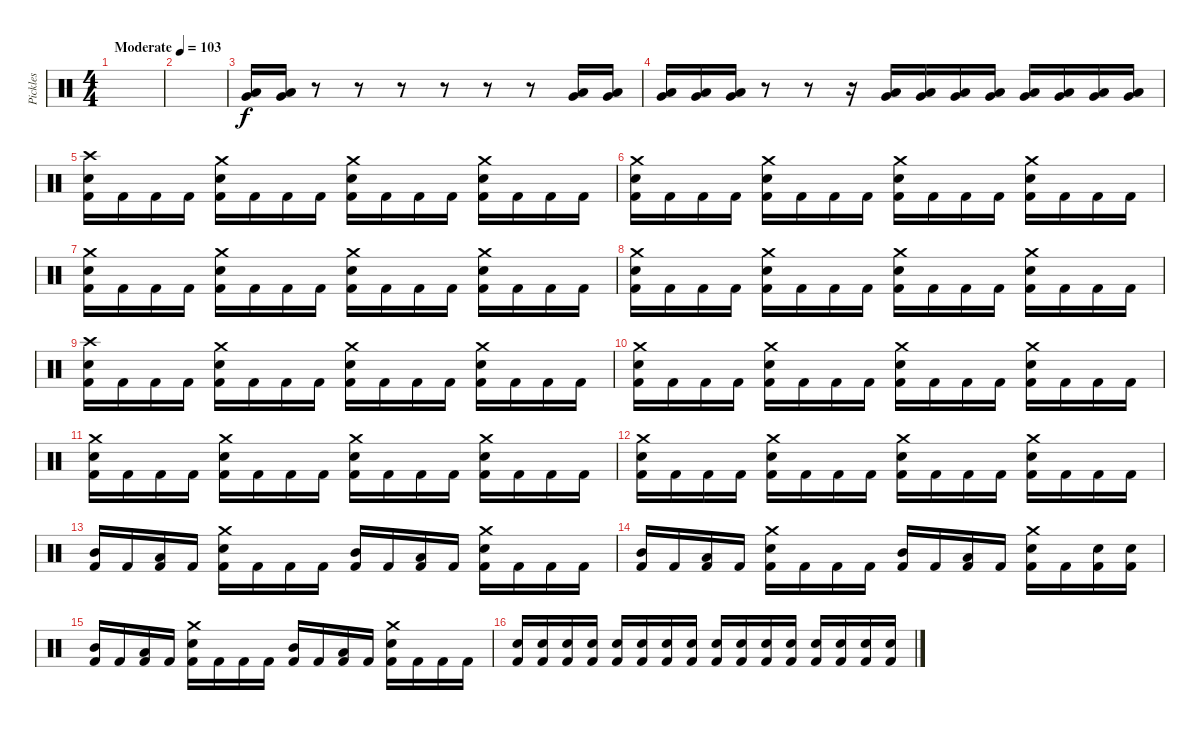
\track ("Pickles" "Pickles") {instrument percussion}
\staff {score}
\articulation defaults
\ts (4 4)
\tempo (103 "Moderate")
\clef neutral
\ks c
|
|
("Very Low Tom (hit)" "Low Tom (hit)").16 ("Very Low Tom (hit)" "Low Tom (hit)").16 r.8 r.8 r.8 r.8 r.8 r.8 ("Very Low Tom (hit)" "Low Tom (hit)").16 ("Very Low Tom (hit)" "Low Tom (hit)").16 |
("Very Low Tom (hit)" "Low Tom (hit)").16 ("Very Low Tom (hit)" "Low Tom (hit)").16 ("Very Low Tom (hit)" "Low Tom (hit)").16 r.8 r.8 r.16 ("Very Low Tom (hit)" "Low Tom (hit)").16 ("Very Low Tom (hit)" "Low Tom (hit)").16 ("Very Low Tom (hit)" "Low Tom (hit)").16 ("Very Low Tom (hit)" "Low Tom (hit)").16 ("Very Low Tom (hit)" "Low Tom (hit)").16 ("Very Low Tom (hit)" "Low Tom (hit)").16 ("Very Low Tom (hit)" "Low Tom (hit)").16 ("Very Low Tom (hit)" "Low Tom (hit)").16 |
("Crash high (hit)" "Electric Snare (hit)" "Kick (hit) 2").16 "Kick (hit) 2".16 "Kick (hit) 2".16 "Kick (hit) 2".16 ("Crash medium (hit)" "Electric Snare (hit)" "Kick (hit) 2").16 "Kick (hit) 2".16 "Kick (hit) 2".16 "Kick (hit) 2".16 ("Crash medium (hit)" "Electric Snare (hit)" "Kick (hit) 2").16 "Kick (hit) 2".16 "Kick (hit) 2".16 "Kick (hit) 2".16 ("Crash medium (hit)" "Electric Snare (hit)" "Kick (hit) 2").16 "Kick (hit) 2".16 "Kick (hit) 2".16 "Kick (hit) 2".16 |
("Crash medium (hit)" "Electric Snare (hit)" "Kick (hit) 2").16 "Kick (hit) 2".16 "Kick (hit) 2".16 "Kick (hit) 2".16 ("Crash medium (hit)" "Electric Snare (hit)" "Kick (hit) 2").16 "Kick (hit) 2".16 "Kick (hit) 2".16 "Kick (hit) 2".16 ("Crash medium (hit)" "Electric Snare (hit)" "Kick (hit) 2").16 "Kick (hit) 2".16 "Kick (hit) 2".16 "Kick (hit) 2".16 ("Crash medium (hit)" "Electric Snare (hit)" "Kick (hit) 2").16 "Kick (hit) 2".16 "Kick (hit) 2".16 "Kick (hit) 2".16 |
("Crash medium (hit)" "Electric Snare (hit)" "Kick (hit) 2").16 "Kick (hit) 2".16 "Kick (hit) 2".16 "Kick (hit) 2".16 ("Crash medium (hit)" "Electric Snare (hit)" "Kick (hit) 2").16 "Kick (hit) 2".16 "Kick (hit) 2".16 "Kick (hit) 2".16 ("Crash medium (hit)" "Electric Snare (hit)" "Kick (hit) 2").16 "Kick (hit) 2".16 "Kick (hit) 2".16 "Kick (hit) 2".16 ("Crash medium (hit)" "Electric Snare (hit)" "Kick (hit) 2").16 "Kick (hit) 2".16 "Kick (hit) 2".16 "Kick (hit) 2".16 |
("Crash medium (hit)" "Electric Snare (hit)" "Kick (hit) 2").16 "Kick (hit) 2".16 "Kick (hit) 2".16 "Kick (hit) 2".16 ("Crash medium (hit)" "Electric Snare (hit)" "Kick (hit) 2").16 "Kick (hit) 2".16 "Kick (hit) 2".16 "Kick (hit) 2".16 ("Crash medium (hit)" "Electric Snare (hit)" "Kick (hit) 2").16 "Kick (hit) 2".16 "Kick (hit) 2".16 "Kick (hit) 2".16 ("Crash medium (hit)" "Electric Snare (hit)" "Kick (hit) 2").16 "Kick (hit) 2".16 "Kick (hit) 2".16 "Kick (hit) 2".16 |
("Crash high (hit)" "Electric Snare (hit)" "Kick (hit) 2").16 "Kick (hit) 2".16 "Kick (hit) 2".16 "Kick (hit) 2".16 ("Crash medium (hit)" "Electric Snare (hit)" "Kick (hit) 2").16 "Kick (hit) 2".16 "Kick (hit) 2".16 "Kick (hit) 2".16 ("Crash medium (hit)" "Electric Snare (hit)" "Kick (hit) 2").16 "Kick (hit) 2".16 "Kick (hit) 2".16 "Kick (hit) 2".16 ("Crash medium (hit)" "Electric Snare (hit)" "Kick (hit) 2").16 "Kick (hit) 2".16 "Kick (hit) 2".16 "Kick (hit) 2".16 |
("Crash medium (hit)" "Electric Snare (hit)" "Kick (hit) 2").16 "Kick (hit) 2".16 "Kick (hit) 2".16 "Kick (hit) 2".16 ("Crash medium (hit)" "Electric Snare (hit)" "Kick (hit) 2").16 "Kick (hit) 2".16 "Kick (hit) 2".16 "Kick (hit) 2".16 ("Crash medium (hit)" "Electric Snare (hit)" "Kick (hit) 2").16 "Kick (hit) 2".16 "Kick (hit) 2".16 "Kick (hit) 2".16 ("Crash medium (hit)" "Electric Snare (hit)" "Kick (hit) 2").16 "Kick (hit) 2".16 "Kick (hit) 2".16 "Kick (hit) 2".16 |
("Crash medium (hit)" "Electric Snare (hit)" "Kick (hit) 2").16 "Kick (hit) 2".16 "Kick (hit) 2".16 "Kick (hit) 2".16 ("Crash medium (hit)" "Electric Snare (hit)" "Kick (hit) 2").16 "Kick (hit) 2".16 "Kick (hit) 2".16 "Kick (hit) 2".16 ("Crash medium (hit)" "Electric Snare (hit)" "Kick (hit) 2").16 "Kick (hit) 2".16 "Kick (hit) 2".16 "Kick (hit) 2".16 ("Crash medium (hit)" "Electric Snare (hit)" "Kick (hit) 2").16 "Kick (hit) 2".16 "Kick (hit) 2".16 "Kick (hit) 2".16 |
("Crash medium (hit)" "Electric Snare (hit)" "Kick (hit) 2").16 "Kick (hit) 2".16 "Kick (hit) 2".16 "Kick (hit) 2".16 ("Crash medium (hit)" "Electric Snare (hit)" "Kick (hit) 2").16 "Kick (hit) 2".16 "Kick (hit) 2".16 "Kick (hit) 2".16 ("Crash medium (hit)" "Electric Snare (hit)" "Kick (hit) 2").16 "Kick (hit) 2".16 "Kick (hit) 2".16 "Kick (hit) 2".16 ("Crash medium (hit)" "Electric Snare (hit)" "Kick (hit) 2").16 "Kick (hit) 2".16 "Kick (hit) 2".16 "Kick (hit) 2".16 |
("Mid Tom (hit)" "Kick (hit) 2").16 "Kick (hit) 2".16 ("Low Tom (hit)" "Kick (hit) 2").16 "Kick (hit) 2".16 ("Crash medium (hit)" "Electric Snare (hit)" "Kick (hit) 2").16 "Kick (hit) 2".16 "Kick (hit) 2".16 "Kick (hit) 2".16 ("Mid Tom (hit)" "Kick (hit) 2").16 "Kick (hit) 2".16 ("Low Tom (hit)" "Kick (hit) 2").16 "Kick (hit) 2".16 ("Crash medium (hit)" "Electric Snare (hit)" "Kick (hit) 2").16 "Kick (hit) 2".16 "Kick (hit) 2".16 "Kick (hit) 2".16 |
("Mid Tom (hit)" "Kick (hit) 2").16 "Kick (hit) 2".16 ("Low Tom (hit)" "Kick (hit) 2").16 "Kick (hit) 2".16 ("Crash medium (hit)" "Electric Snare (hit)" "Kick (hit) 2").16 "Kick (hit) 2".16 "Kick (hit) 2".16 "Kick (hit) 2".16 ("Mid Tom (hit)" "Kick (hit) 2").16 "Kick (hit) 2".16 ("Low Tom (hit)" "Kick (hit) 2").16 "Kick (hit) 2".16 ("Crash medium (hit)" "Electric Snare (hit)" "Kick (hit) 2").16 "Kick (hit) 2".16 ("Electric Snare (hit)" "Kick (hit) 2").16 ("Electric Snare (hit)" "Kick (hit) 2").16 |
("Mid Tom (hit)" "Kick (hit) 2").16 "Kick (hit) 2".16 ("Low Tom (hit)" "Kick (hit) 2").16 "Kick (hit) 2".16 ("Crash medium (hit)" "Electric Snare (hit)" "Kick (hit) 2").16 "Kick (hit) 2".16 "Kick (hit) 2".16 "Kick (hit) 2".16 ("Mid Tom (hit)" "Kick (hit) 2").16 "Kick (hit) 2".16 ("Low Tom (hit)" "Kick (hit) 2").16 "Kick (hit) 2".16 ("Crash medium (hit)" "Electric Snare (hit)" "Kick (hit) 2").16 "Kick (hit) 2".16 "Kick (hit) 2".16 "Kick (hit) 2".16 |
("Electric Snare (hit)" "Kick (hit) 2").16 ("Electric Snare (hit)" "Kick (hit) 2").16 ("Electric Snare (hit)" "Kick (hit) 2").16 ("Electric Snare (hit)" "Kick (hit) 2").16 ("Electric Snare (hit)" "Kick (hit) 2").16 ("Electric Snare (hit)" "Kick (hit) 2").16 ("Electric Snare (hit)" "Kick (hit) 2").16 ("Electric Snare (hit)" "Kick (hit) 2").16 ("Electric Snare (hit)" "Kick (hit) 2").16 ("Electric Snare (hit)" "Kick (hit) 2").16 ("Electric Snare (hit)" "Kick (hit) 2").16 ("Electric Snare (hit)" "Kick (hit) 2").16 ("Electric Snare (hit)" "Kick (hit) 2").16 ("Electric Snare (hit)" "Kick (hit) 2").16 ("Electric Snare (hit)" "Kick (hit) 2").16 ("Electric Snare (hit)" "Kick (hit) 2").16
